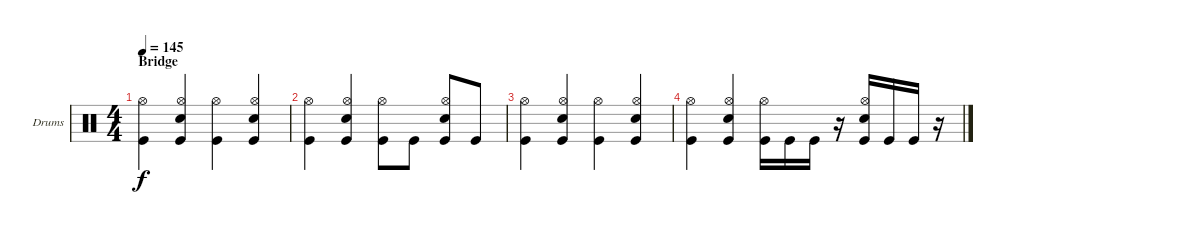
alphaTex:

\bracketExtendMode groupsimilarinstruments
\firstSystemTrackNameOrientation horizontal
\otherSystemsTrackNameOrientation horizontal
\track ("Drumkit" "Drums") {solo instrument percussion}
\staff {score}
\articulation defaults
\ts (4 4)
\section ("" "Bridge")
\tempo 145
\clef neutral
\ks c
("Kick (hit)" "Hi-Hat (open)").4{dy f} ("Kick (hit)" "Snare (hit) 2" "Hi-Hat (open)").4 ("Kick (hit)" "Hi-Hat (open)").4 ("Kick (hit)" "Snare (hit) 2" "Hi-Hat (open)").4 |
("Kick (hit)" "Hi-Hat (open)").4 ("Kick (hit)" "Snare (hit) 2" "Hi-Hat (open)").4 ("Kick (hit)" "Hi-Hat (open)").8 "Kick (hit)".8 ("Kick (hit)" "Snare (hit) 2" "Hi-Hat (open)").8 "Kick (hit)".8 |
("Kick (hit)" "Hi-Hat (open)").4 ("Kick (hit)" "Snare (hit) 2" "Hi-Hat (open)").4 ("Kick (hit)" "Hi-Hat (open)").4 ("Kick (hit)" "Snare (hit) 2" "Hi-Hat (open)").4 |
("Kick (hit)" "Hi-Hat (open)").4 ("Kick (hit)" "Snare (hit) 2" "Hi-Hat (open)").4 ("Kick (hit)" "Hi-Hat (open)").16 "Kick (hit)".16 "Kick (hit)".16 r.16 ("Kick (hit)" "Snare (hit) 2" "Hi-Hat (open)").16 "Kick (hit)".16 "Kick (hit)".16 r.16
